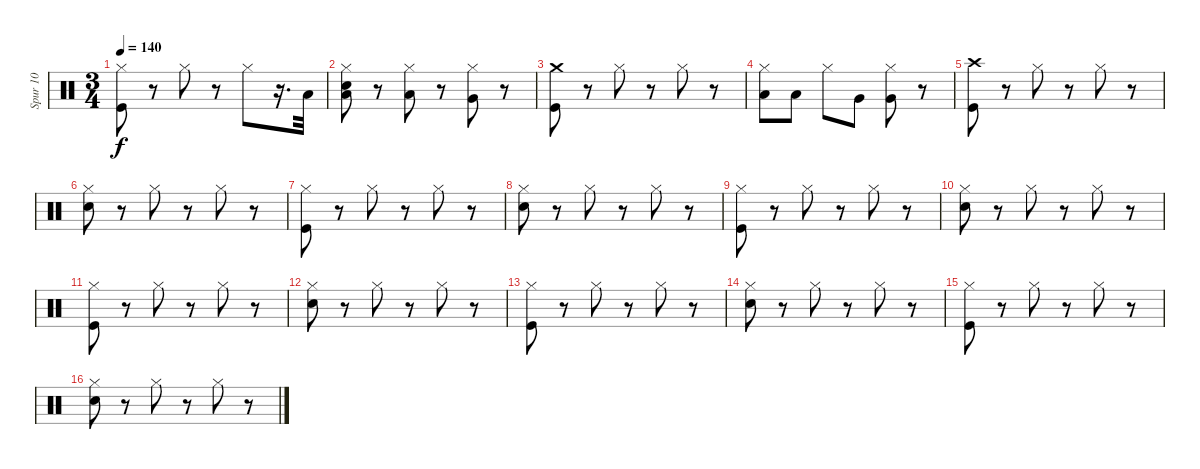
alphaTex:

\track ("Spur 10" "Spur 10") {instrument percussion}
\staff {score}
\articulation defaults
\ts (3 4)
\tempo 140
\clef neutral
\ks c
("Kick (hit)" "Hi-Hat (closed)").8{dy f} r.8 "Hi-Hat (closed)".8 r.8 "Hi-Hat (closed)".8 r.16{d} "Low Floor Tom (hit)".32 |
("Low Floor Tom (hit)" "Snare (hit) 2" "Hi-Hat (closed)").8 r.8 ("Low Floor Tom (hit)" "Hi-Hat (closed)").8 r.8 ("Very Low Tom (hit)" "Hi-Hat (closed)").8 r.8 |
("Kick (hit)" "Crash medium (hit)").8 r.8 "Hi-Hat (closed)".8 r.8 "Hi-Hat (closed)".8 r.8 |
("Low Tom (hit)" "Hi-Hat (closed)").8 "Low Tom (hit)".8 "Hi-Hat (closed)".8 "Very Low Tom (hit)".8 ("Very Low Tom (hit)" "Hi-Hat (closed)").8 r.8 |
("Crash high (hit)" "Kick (hit)").8 r.8 "Hi-Hat (closed)".8 r.8 "Hi-Hat (closed)".8 r.8 |
("Snare (hit) 2" "Hi-Hat (closed)").8 r.8 "Hi-Hat (closed)".8 r.8 "Hi-Hat (closed)".8 r.8 |
("Kick (hit)" "Hi-Hat (closed)").8 r.8 "Hi-Hat (closed)".8 r.8 "Hi-Hat (closed)".8 r.8 |
("Hi-Hat (closed)" "Snare (hit) 2").8 r.8 "Hi-Hat (closed)".8 r.8 "Hi-Hat (closed)".8 r.8 |
("Hi-Hat (closed)" "Kick (hit)").8 r.8 "Hi-Hat (closed)".8 r.8 "Hi-Hat (closed)".8 r.8 |
("Snare (hit) 2" "Hi-Hat (closed)").8 r.8 "Hi-Hat (closed)".8 r.8 "Hi-Hat (closed)".8 r.8 |
("Kick (hit)" "Hi-Hat (closed)").8 r.8 "Hi-Hat (closed)".8 r.8 "Hi-Hat (closed)".8 r.8 |
("Snare (hit) 2" "Hi-Hat (closed)").8 r.8 "Hi-Hat (closed)".8 r.8 "Hi-Hat (closed)".8 r.8 |
("Kick (hit)" "Hi-Hat (closed)").8 r.8 "Hi-Hat (closed)".8 r.8 "Hi-Hat (closed)".8 r.8 |
("Snare (hit) 2" "Hi-Hat (closed)").8 r.8 "Hi-Hat (closed)".8 r.8 "Hi-Hat (closed)".8 r.8 |
("Kick (hit)" "Hi-Hat (closed)").8 r.8 "Hi-Hat (closed)".8 r.8 "Hi-Hat (closed)".8 r.8 |
("Snare (hit) 2" "Hi-Hat (closed)").8 r.8 "Hi-Hat (closed)".8 r.8 "Hi-Hat (closed)".8 r.8
